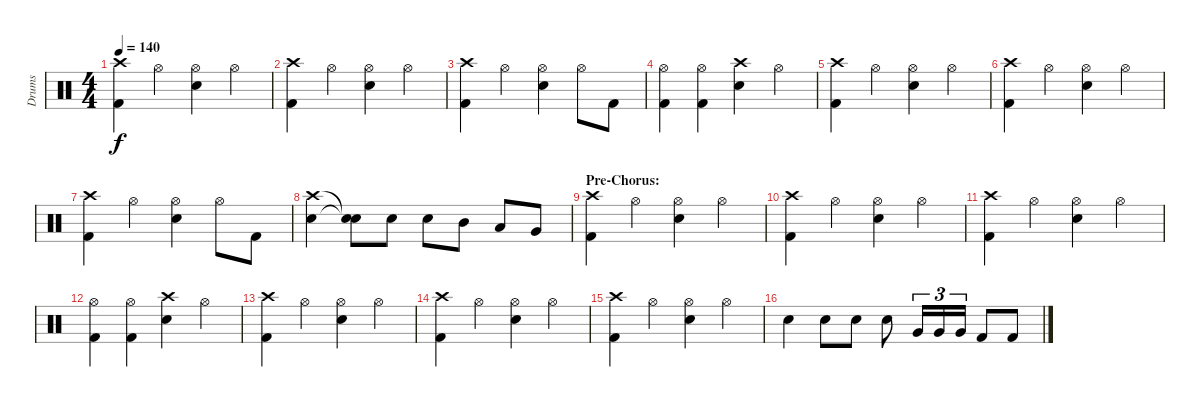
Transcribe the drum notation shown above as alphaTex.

\track ("Drums" "Drums") {instrument percussion}
\staff {score}
\articulation defaults
\ts (4 4)
\tempo 140
\clef neutral
\ks c
("Crash high (hit)" "Kick (hit) 2").4{dy f} "Hi-Hat (open)".4 ("Hi-Hat (open)" "Electric Snare (hit)").4 "Hi-Hat (open)".4 |
("Crash high (hit)" "Kick (hit) 2").4 "Hi-Hat (open)".4 ("Hi-Hat (open)" "Electric Snare (hit)").4 "Hi-Hat (open)".4 |
("Crash high (hit)" "Kick (hit) 2").4 "Hi-Hat (open)".4 ("Hi-Hat (open)" "Electric Snare (hit)").4 "Hi-Hat (open)".8 "Kick (hit) 2".8 |
("Hi-Hat (open)" "Kick (hit) 2").4 ("Hi-Hat (open)" "Kick (hit) 2").4 ("Crash high (hit)" "Electric Snare (hit)").4 "Hi-Hat (open)".4 |
("Crash high (hit)" "Kick (hit) 2").4 "Hi-Hat (open)".4 ("Hi-Hat (open)" "Electric Snare (hit)").4 "Hi-Hat (open)".4 |
("Crash high (hit)" "Kick (hit) 2").4 "Hi-Hat (open)".4 ("Hi-Hat (open)" "Electric Snare (hit)").4 "Hi-Hat (open)".4 |
("Crash high (hit)" "Kick (hit) 2").4 "Hi-Hat (open)".4 ("Hi-Hat (open)" "Electric Snare (hit)").4 "Hi-Hat (open)".8 "Kick (hit) 2".8 |
("Crash high (hit)" "Electric Snare (hit)").4 ("Snare (hit)"{t} "Snare (hit)"{t}).8 "Electric Snare (hit)".8 "Electric Snare (hit)".8 "Mid Tom (hit)".8 "Low Tom (hit)".8 "Very Low Tom (hit)".8 |
\section ("" "Pre-Chorus:")
("Crash high (hit)" "Kick (hit) 2").4 "Hi-Hat (open)".4 ("Hi-Hat (open)" "Electric Snare (hit)").4 "Hi-Hat (open)".4 |
("Crash high (hit)" "Kick (hit) 2").4 "Hi-Hat (open)".4 ("Hi-Hat (open)" "Electric Snare (hit)").4 "Hi-Hat (open)".4 |
("Crash high (hit)" "Kick (hit) 2").4 "Hi-Hat (open)".4 ("Hi-Hat (open)" "Electric Snare (hit)").4 "Hi-Hat (open)".4 |
("Hi-Hat (open)" "Kick (hit) 2").4 ("Hi-Hat (open)" "Kick (hit) 2").4 ("Crash high (hit)" "Electric Snare (hit)").4 "Hi-Hat (open)".4 |
("Crash high (hit)" "Kick (hit) 2").4 "Hi-Hat (open)".4 ("Hi-Hat (open)" "Electric Snare (hit)").4 "Hi-Hat (open)".4 |
("Crash high (hit)" "Kick (hit) 2").4 "Hi-Hat (open)".4 ("Hi-Hat (open)" "Electric Snare (hit)").4 "Hi-Hat (open)".4 |
("Crash high (hit)" "Kick (hit) 2").4 "Hi-Hat (open)".4 ("Hi-Hat (open)" "Electric Snare (hit)").4 "Hi-Hat (open)".4 |
"Electric Snare (hit)".4 "Electric Snare (hit)".8 "Electric Snare (hit)".8 "Electric Snare (hit)".8 "Very Low Tom (hit)".16{tu (3 2)} "Very Low Tom (hit)".16{tu (3 2)} "Very Low Tom (hit)".16{tu (3 2)} "Kick (hit) 2".8 "Kick (hit) 2".8
